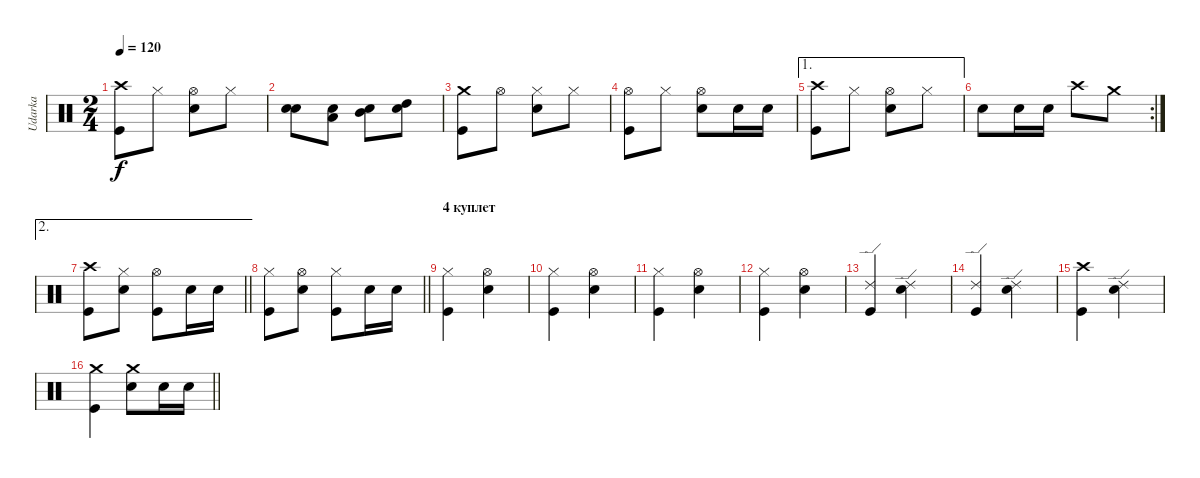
\track ("Udarka" "Udarka") {solo instrument percussion}
\staff {score}
\articulation defaults
\ts (2 4)
\tempo 120
\clef neutral
\ks c
("Kick (hit)" "Crash high (hit)").8{dy f} "Hi-Hat (closed)".8 ("Snare (hit) 2" "Hi-Hat (open)").8 "Hi-Hat (closed)".8 |
("Snare (hit) 2" "Snare (hit) 2").8 ("Snare (hit) 2" "Low Tom (hit)").8 ("Snare (hit) 2" "Mid Tom (hit)").8 ("Snare (hit) 2" "High Tom (hit)").8 |
("Kick (hit)" "Crash medium (hit)").8 "Hi-Hat (open)".8 ("Snare (hit) 2" "Hi-Hat (closed)").8 "Hi-Hat (closed)".8 |
("Kick (hit)" "Hi-Hat (open)").8 "Hi-Hat (closed)".8 ("Snare (hit) 2" "Hi-Hat (open)").8 "Snare (hit) 2".16 "Snare (hit) 2".16 |
\ae 1
("Kick (hit)" "Crash high (hit)").8 "Hi-Hat (closed)".8 ("Snare (hit) 2" "Hi-Hat (open)").8 "Hi-Hat (closed)".8 |
\rc 2 "Snare (hit) 2".8 "Snare (hit) 2".16 "Snare (hit) 2".16 "Crash high (hit)".8 "Crash medium (hit)".8
|
\ae 2
\barLineRight lightlight
("Kick (hit)" "Crash high (hit)").8 ("Snare (hit) 2" "Hi-Hat (closed)").8 ("Kick (hit)" "Hi-Hat (open)").8 "Snare (hit) 2".16 "Snare (hit) 2".16 |
\section ("" "")
\barLineRight lightlight
("Kick (hit)" "Hi-Hat (closed)").8 ("Snare (hit) 2" "Hi-Hat (open)").8 ("Kick (hit)" "Hi-Hat (closed)").8 "Snare (hit) 2".16 "Snare (hit) 2".16 |
\section ("" "4 куплет")
("Kick (hit)" "Hi-Hat (closed)").4 ("Snare (hit) 2" "Hi-Hat (open)").4 |
("Kick (hit)" "Hi-Hat (closed)").4 ("Snare (hit) 2" "Hi-Hat (open)").4 |
("Kick (hit)" "Hi-Hat (closed)").4 ("Snare (hit) 2" "Hi-Hat (open)").4 |
("Kick (hit)" "Hi-Hat (closed)").4 ("Snare (hit) 2" "Hi-Hat (open)").4 |
("Kick (hit)" "Ride (edge) 2").4 ("Snare (hit) 2" "Ride (edge) 2").4 |
("Kick (hit)" "Ride (edge) 2").4 ("Snare (hit) 2" "Ride (edge) 2").4 |
("Kick (hit)" "Crash high (hit)").4 ("Snare (hit) 2" "Ride (edge) 2").4 |
\barLineRight lightlight
("Kick (hit)" "Crash medium (hit)").4 ("Snare (hit) 2" "Crash medium (hit)").8 "Snare (hit) 2".16 "Snare (hit) 2".16
